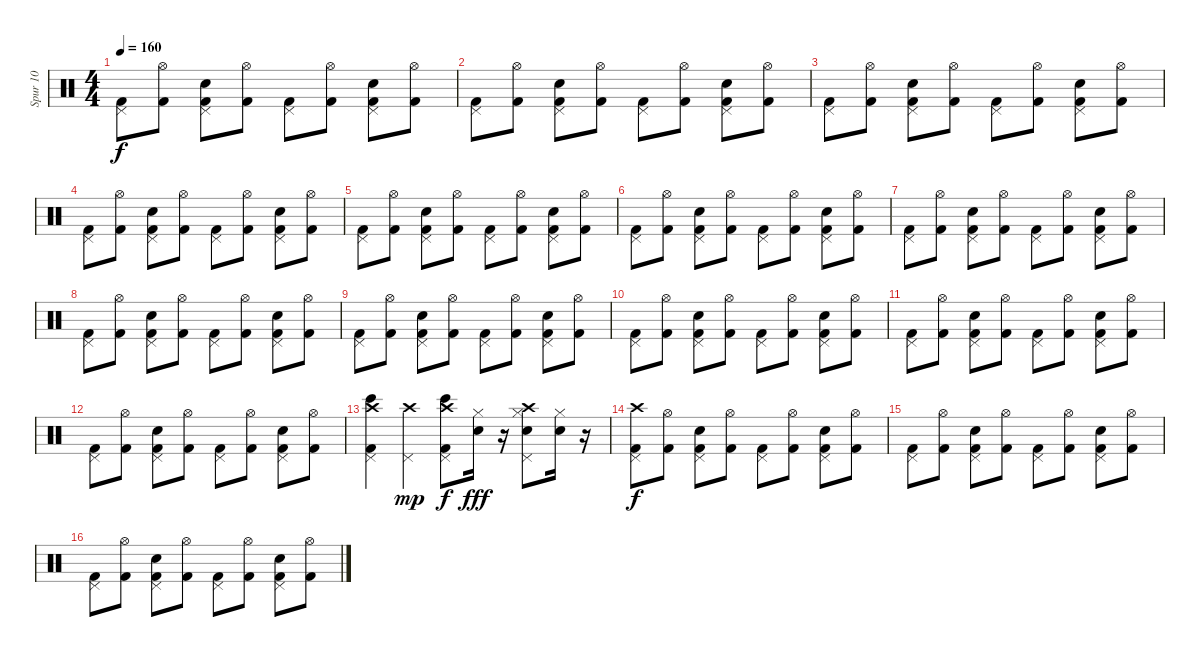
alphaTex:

\track ("Spur 10" "Spur 10") {instrument percussion}
\staff {score}
\articulation defaults
\ts (4 4)
\tempo 160
\clef neutral
\ks c
("Kick (hit) 2" "Pedal Hi-Hat (hit)").8{dy f} ("Kick (hit) 2" "Hi-Hat (open)").8 ("Snare (hit) 2" "Kick (hit) 2" "Pedal Hi-Hat (hit)").8 ("Kick (hit) 2" "Hi-Hat (open)").8 ("Pedal Hi-Hat (hit)" "Kick (hit) 2").8 ("Hi-Hat (open)" "Kick (hit) 2").8 ("Snare (hit) 2" "Pedal Hi-Hat (hit)" "Kick (hit) 2").8 ("Kick (hit) 2" "Hi-Hat (open)").8 |
("Pedal Hi-Hat (hit)" "Kick (hit) 2").8 ("Kick (hit) 2" "Hi-Hat (open)").8 ("Snare (hit) 2" "Kick (hit) 2" "Pedal Hi-Hat (hit)").8 ("Hi-Hat (open)" "Kick (hit) 2").8 ("Kick (hit) 2" "Pedal Hi-Hat (hit)").8 ("Hi-Hat (open)" "Kick (hit) 2").8 ("Pedal Hi-Hat (hit)" "Kick (hit) 2" "Snare (hit) 2").8 ("Hi-Hat (open)" "Kick (hit) 2").8 |
("Pedal Hi-Hat (hit)" "Kick (hit) 2").8 ("Hi-Hat (open)" "Kick (hit) 2").8 ("Pedal Hi-Hat (hit)" "Kick (hit) 2" "Snare (hit) 2").8 ("Kick (hit) 2" "Hi-Hat (open)").8 ("Kick (hit) 2" "Pedal Hi-Hat (hit)").8 ("Kick (hit) 2" "Hi-Hat (open)").8 ("Kick (hit) 2" "Pedal Hi-Hat (hit)" "Snare (hit) 2").8 ("Kick (hit) 2" "Hi-Hat (open)").8 |
("Pedal Hi-Hat (hit)" "Kick (hit) 2").8 ("Hi-Hat (open)" "Kick (hit) 2").8 ("Kick (hit) 2" "Pedal Hi-Hat (hit)" "Snare (hit) 2").8 ("Kick (hit) 2" "Hi-Hat (open)").8 ("Kick (hit) 2" "Pedal Hi-Hat (hit)").8 ("Hi-Hat (open)" "Kick (hit) 2").8 ("Pedal Hi-Hat (hit)" "Snare (hit) 2" "Kick (hit) 2").8 ("Hi-Hat (open)" "Kick (hit) 2").8 |
("Pedal Hi-Hat (hit)" "Kick (hit) 2").8 ("Hi-Hat (open)" "Kick (hit) 2").8 ("Snare (hit) 2" "Kick (hit) 2" "Pedal Hi-Hat (hit)").8 ("Kick (hit) 2" "Hi-Hat (open)").8 ("Kick (hit) 2" "Pedal Hi-Hat (hit)").8 ("Kick (hit) 2" "Hi-Hat (open)").8 ("Snare (hit) 2" "Pedal Hi-Hat (hit)" "Kick (hit) 2").8 ("Hi-Hat (open)" "Kick (hit) 2").8 |
("Kick (hit) 2" "Pedal Hi-Hat (hit)").8 ("Kick (hit) 2" "Hi-Hat (open)").8 ("Snare (hit) 2" "Kick (hit) 2" "Pedal Hi-Hat (hit)").8 ("Hi-Hat (open)" "Kick (hit) 2").8 ("Kick (hit) 2" "Pedal Hi-Hat (hit)").8 ("Kick (hit) 2" "Hi-Hat (open)").8 ("Pedal Hi-Hat (hit)" "Snare (hit) 2" "Kick (hit) 2").8 ("Kick (hit) 2" "Hi-Hat (open)").8 |
("Kick (hit) 2" "Pedal Hi-Hat (hit)").8 ("Kick (hit) 2" "Hi-Hat (open)").8 ("Snare (hit) 2" "Pedal Hi-Hat (hit)" "Kick (hit) 2").8 ("Hi-Hat (open)" "Kick (hit) 2").8 ("Kick (hit) 2" "Pedal Hi-Hat (hit)").8 ("Hi-Hat (open)" "Kick (hit) 2").8 ("Pedal Hi-Hat (hit)" "Kick (hit) 2" "Snare (hit) 2").8 ("Kick (hit) 2" "Hi-Hat (open)").8 |
("Pedal Hi-Hat (hit)" "Kick (hit) 2").8 ("Kick (hit) 2" "Hi-Hat (open)").8 ("Kick (hit) 2" "Snare (hit) 2" "Pedal Hi-Hat (hit)").8 ("Hi-Hat (open)" "Kick (hit) 2").8 ("Pedal Hi-Hat (hit)" "Kick (hit) 2").8 ("Hi-Hat (open)" "Kick (hit) 2").8 ("Pedal Hi-Hat (hit)" "Snare (hit) 2" "Kick (hit) 2").8 ("Hi-Hat (open)" "Kick (hit) 2").8 |
("Pedal Hi-Hat (hit)" "Kick (hit) 2").8 ("Kick (hit) 2" "Hi-Hat (open)").8 ("Pedal Hi-Hat (hit)" "Snare (hit) 2" "Kick (hit) 2").8 ("Hi-Hat (open)" "Kick (hit) 2").8 ("Pedal Hi-Hat (hit)" "Kick (hit) 2").8 ("Kick (hit) 2" "Hi-Hat (open)").8 ("Snare (hit) 2" "Kick (hit) 2" "Pedal Hi-Hat (hit)").8 ("Hi-Hat (open)" "Kick (hit) 2").8 |
("Kick (hit) 2" "Pedal Hi-Hat (hit)").8 ("Hi-Hat (open)" "Kick (hit) 2").8 ("Snare (hit) 2" "Pedal Hi-Hat (hit)" "Kick (hit) 2").8 ("Hi-Hat (open)" "Kick (hit) 2").8 ("Pedal Hi-Hat (hit)" "Kick (hit) 2").8 ("Kick (hit) 2" "Hi-Hat (open)").8 ("Kick (hit) 2" "Snare (hit) 2" "Pedal Hi-Hat (hit)").8 ("Hi-Hat (open)" "Kick (hit) 2").8 |
("Kick (hit) 2" "Pedal Hi-Hat (hit)").8 ("Kick (hit) 2" "Hi-Hat (open)").8 ("Snare (hit) 2" "Pedal Hi-Hat (hit)" "Kick (hit) 2").8 ("Kick (hit) 2" "Hi-Hat (open)").8 ("Pedal Hi-Hat (hit)" "Kick (hit) 2").8 ("Hi-Hat (open)" "Kick (hit) 2").8 ("Pedal Hi-Hat (hit)" "Kick (hit) 2" "Snare (hit) 2").8 ("Kick (hit) 2" "Hi-Hat (open)").8 |
("Kick (hit) 2" "Pedal Hi-Hat (hit)").8 ("Kick (hit) 2" "Hi-Hat (open)").8 ("Snare (hit) 2" "Kick (hit) 2" "Pedal Hi-Hat (hit)").8 ("Hi-Hat (open)" "Kick (hit) 2").8 ("Kick (hit) 2" "Pedal Hi-Hat (hit)").8 ("Kick (hit) 2" "Hi-Hat (open)").8 ("Snare (hit) 2" "Kick (hit) 2" "Pedal Hi-Hat (hit)").8 ("Kick (hit) 2" "Hi-Hat (open)").8 |
("Bongo High (hit)" "Kick (hit) 2" "Pedal Hi-Hat (hit)" "Crash high (hit)").4 ("Crash high (hit)" "Pedal Hi-Hat (hit)").4{dy mp} ("Bongo High (hit)" "Pedal Hi-Hat (hit)" "Crash high (hit)" "Kick (hit) 2").8{dy f} ("Hand Clap (hit)" "Hi-Hat (closed)").16{dy fff} r.16 ("Crash high (hit)" "Pedal Hi-Hat (hit)" "Hi-Hat (closed)" "Hand Clap (hit)").8 ("Hi-Hat (closed)" "Hand Clap (hit)").16 r.16 |
("Kick (hit) 2" "Pedal Hi-Hat (hit)" "Crash high (hit)").8{dy f} ("Kick (hit) 2" "Hi-Hat (open)").8 ("Kick (hit) 2" "Snare (hit) 2" "Pedal Hi-Hat (hit)").8 ("Hi-Hat (open)" "Kick (hit) 2").8 ("Pedal Hi-Hat (hit)" "Kick (hit) 2").8 ("Kick (hit) 2" "Hi-Hat (open)").8 ("Snare (hit) 2" "Kick (hit) 2" "Pedal Hi-Hat (hit)").8 ("Kick (hit) 2" "Hi-Hat (open)").8 |
("Pedal Hi-Hat (hit)" "Kick (hit) 2").8 ("Hi-Hat (open)" "Kick (hit) 2").8 ("Pedal Hi-Hat (hit)" "Kick (hit) 2" "Snare (hit) 2").8 ("Kick (hit) 2" "Hi-Hat (open)").8 ("Pedal Hi-Hat (hit)" "Kick (hit) 2").8 ("Kick (hit) 2" "Hi-Hat (open)").8 ("Snare (hit) 2" "Pedal Hi-Hat (hit)" "Kick (hit) 2").8 ("Hi-Hat (open)" "Kick (hit) 2").8 |
("Pedal Hi-Hat (hit)" "Kick (hit) 2").8 ("Hi-Hat (open)" "Kick (hit) 2").8 ("Pedal Hi-Hat (hit)" "Kick (hit) 2" "Snare (hit) 2").8 ("Kick (hit) 2" "Hi-Hat (open)").8 ("Pedal Hi-Hat (hit)" "Kick (hit) 2").8 ("Hi-Hat (open)" "Kick (hit) 2").8 ("Kick (hit) 2" "Snare (hit) 2" "Pedal Hi-Hat (hit)").8 ("Hi-Hat (open)" "Kick (hit) 2").8
